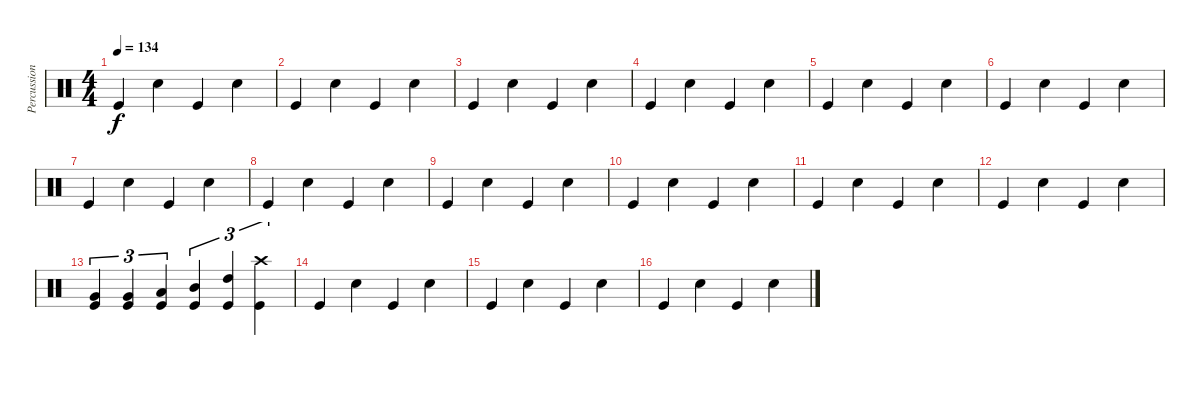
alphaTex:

\track ("Percussions" "Percussion") {instrument percussion}
\staff {score}
\articulation defaults
\ts (4 4)
\tempo 134
\clef neutral
\ks c "Kick (hit)".4{dy f} "Snare (hit) 2".4 "Kick (hit)".4 "Snare (hit) 2".4
|
"Kick (hit)".4 "Snare (hit) 2".4 "Kick (hit)".4 "Snare (hit) 2".4 |
"Kick (hit)".4 "Snare (hit) 2".4 "Kick (hit)".4 "Snare (hit) 2".4 |
"Kick (hit)".4 "Snare (hit) 2".4 "Kick (hit)".4 "Snare (hit) 2".4 |
"Kick (hit)".4 "Snare (hit) 2".4 "Kick (hit)".4 "Snare (hit) 2".4 |
"Kick (hit)".4 "Snare (hit) 2".4 "Kick (hit)".4 "Snare (hit) 2".4 |
"Kick (hit)".4 "Snare (hit) 2".4 "Kick (hit)".4 "Snare (hit) 2".4 |
"Kick (hit)".4 "Snare (hit) 2".4 "Kick (hit)".4 "Snare (hit) 2".4 |
"Kick (hit)".4 "Snare (hit) 2".4 "Kick (hit)".4 "Snare (hit) 2".4 |
"Kick (hit)".4 "Snare (hit) 2".4 "Kick (hit)".4 "Snare (hit) 2".4 |
"Kick (hit)".4 "Snare (hit) 2".4 "Kick (hit)".4 "Snare (hit) 2".4 |
"Kick (hit)".4 "Snare (hit) 2".4 "Kick (hit)".4 "Snare (hit) 2".4 |
("Very Low Tom (hit)" "Kick (hit)").4{tu (3 2)} ("Very Low Tom (hit)" "Kick (hit)").4{tu (3 2)} ("Low Floor Tom (hit)" "Kick (hit)").4{tu (3 2)} ("Mid Tom (hit)" "Kick (hit)").4{tu (3 2)} ("High Tom (hit)" "Kick (hit)").4{tu (3 2)} ("Crash high (hit)" "Kick (hit)").4{tu (3 2)} |
"Kick (hit)".4 "Snare (hit) 2".4 "Kick (hit)".4 "Snare (hit) 2".4 |
"Kick (hit)".4 "Snare (hit) 2".4 "Kick (hit)".4 "Snare (hit) 2".4 |
"Kick (hit)".4 "Snare (hit) 2".4 "Kick (hit)".4 "Snare (hit) 2".4
